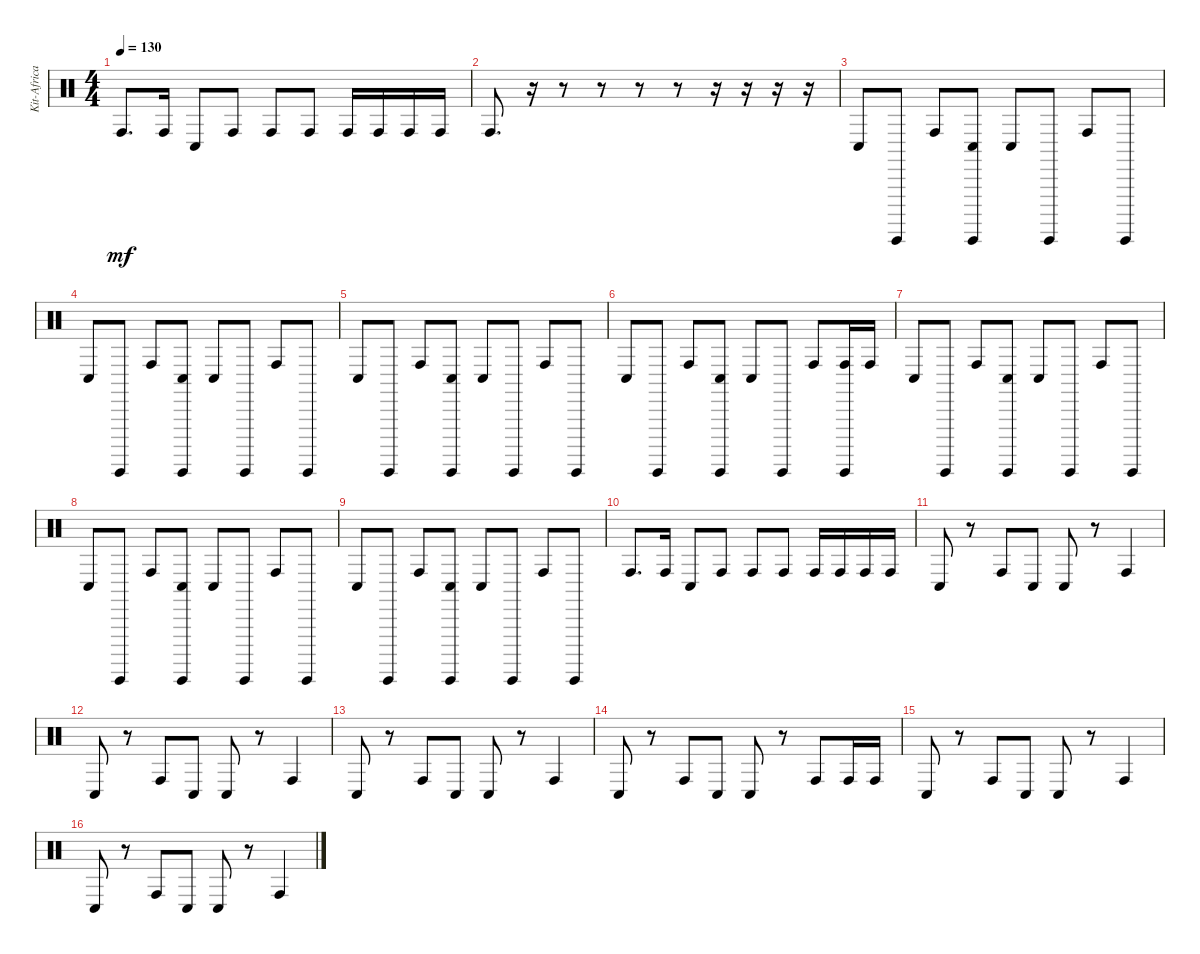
\track ("Kit-Africa" "Kit-Africa") {instrument percussion}
\staff {score}
\articulation defaults
\ts (4 4)
\tempo 130
\clef neutral
\ks c "Conga high (hit)".8{d dy mf} "Conga high (hit)".16 "Conga low (hit)".8 "Conga high (hit)".8 "Conga high (hit)".8 "Conga high (hit)".8 "Conga high (hit)".16 "Conga high (hit)".16 "Conga high (hit)".16 "Conga high (hit)".16
|
"Conga high (hit)".8{d} r.16 r.8 r.8 r.8 r.8 r.16 r.16 r.16 r.16 |
"Conga low (hit)".8 "Guiro (hit)".8 "Conga high (hit)".8 ("Conga low (hit)" "Guiro (hit)").8 "Conga low (hit)".8 "Guiro (hit)".8 "Conga high (hit)".8 "Guiro (hit)".8 |
"Conga low (hit)".8 "Guiro (hit)".8 "Conga high (hit)".8 ("Conga low (hit)" "Guiro (hit)").8 "Conga low (hit)".8 "Guiro (hit)".8 "Conga high (hit)".8 "Guiro (hit)".8 |
"Conga low (hit)".8 "Guiro (hit)".8 "Conga high (hit)".8 ("Conga low (hit)" "Guiro (hit)").8 "Conga low (hit)".8 "Guiro (hit)".8 "Conga high (hit)".8 "Guiro (hit)".8 |
"Conga low (hit)".8 "Guiro (hit)".8 "Conga high (hit)".8 ("Conga low (hit)" "Guiro (hit)").8 "Conga low (hit)".8 "Guiro (hit)".8 "Conga high (hit)".8 ("Conga high (hit)" "Guiro (hit)").16 "Conga high (hit)".16 |
"Conga low (hit)".8 "Guiro (hit)".8 "Conga high (hit)".8 ("Conga low (hit)" "Guiro (hit)").8 "Conga low (hit)".8 "Guiro (hit)".8 "Conga high (hit)".8 "Guiro (hit)".8 |
"Conga low (hit)".8 "Guiro (hit)".8 "Conga high (hit)".8 ("Conga low (hit)" "Guiro (hit)").8 "Conga low (hit)".8 "Guiro (hit)".8 "Conga high (hit)".8 "Guiro (hit)".8 |
"Conga low (hit)".8 "Guiro (hit)".8 "Conga high (hit)".8 ("Conga low (hit)" "Guiro (hit)").8 "Conga low (hit)".8 "Guiro (hit)".8 "Conga high (hit)".8 "Guiro (hit)".8 |
"Conga high (hit)".8{d} "Conga high (hit)".16 "Conga low (hit)".8 "Conga high (hit)".8 "Conga high (hit)".8 "Conga high (hit)".8 "Conga high (hit)".16 "Conga high (hit)".16 "Conga high (hit)".16 "Conga high (hit)".16 |
"Conga low (hit)".8 r.8 "Conga high (hit)".8 "Conga low (hit)".8 "Conga low (hit)".8 r.8 "Conga high (hit)".4 |
"Conga low (hit)".8 r.8 "Conga high (hit)".8 "Conga low (hit)".8 "Conga low (hit)".8 r.8 "Conga high (hit)".4 |
"Conga low (hit)".8 r.8 "Conga high (hit)".8 "Conga low (hit)".8 "Conga low (hit)".8 r.8 "Conga high (hit)".4 |
"Conga low (hit)".8 r.8 "Conga high (hit)".8 "Conga low (hit)".8 "Conga low (hit)".8 r.8 "Conga high (hit)".8 "Conga high (hit)".16 "Conga high (hit)".16 |
"Conga low (hit)".8 r.8 "Conga high (hit)".8 "Conga low (hit)".8 "Conga low (hit)".8 r.8 "Conga high (hit)".4 |
"Conga low (hit)".8 r.8 "Conga high (hit)".8 "Conga low (hit)".8 "Conga low (hit)".8 r.8 "Conga high (hit)".4
